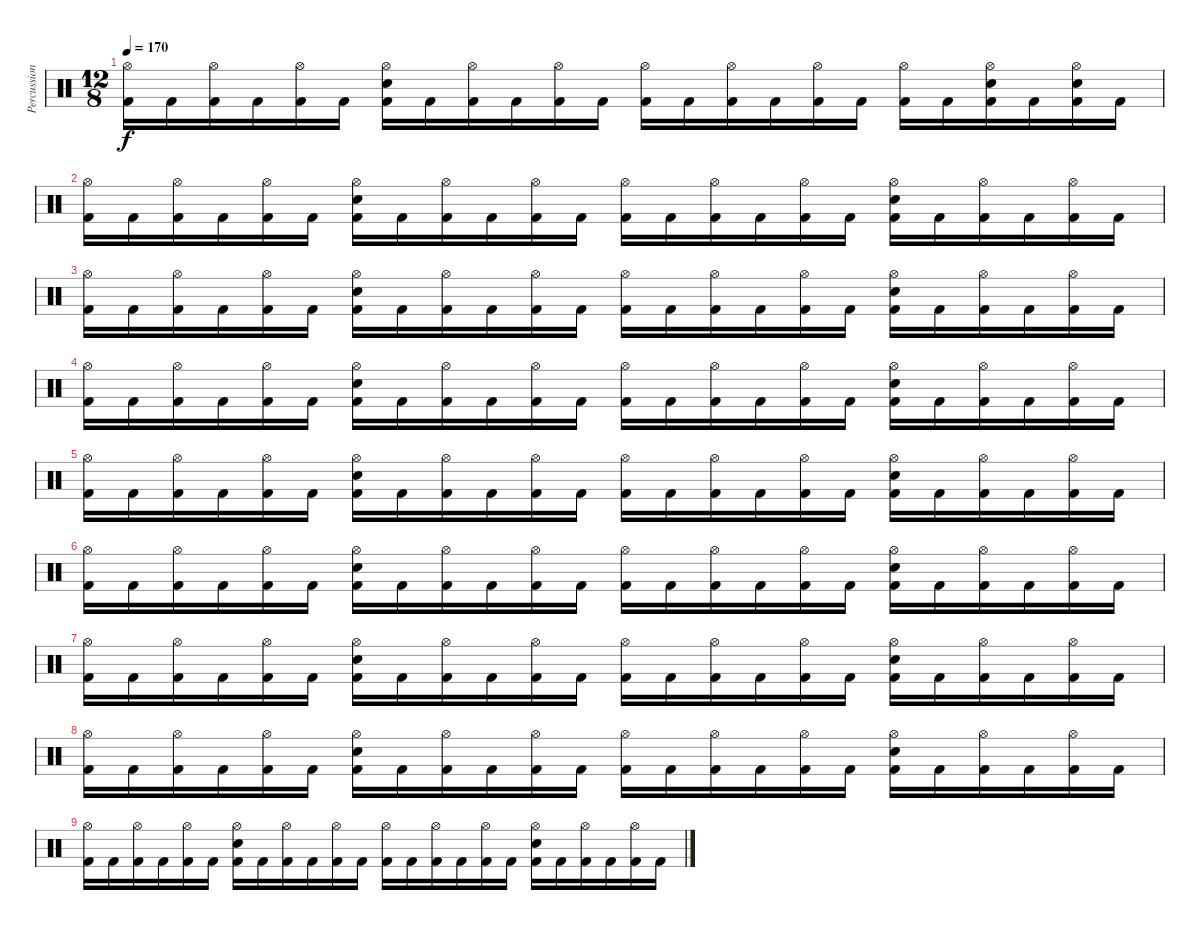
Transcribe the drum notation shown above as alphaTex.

\track ("Percussion" "Percussion") {instrument percussion}
\staff {score}
\articulation defaults
\ts (12 8)
\tempo 170
\clef neutral
\ks c
("Kick (hit) 2" "Hi-Hat (open)").16{dy f} "Kick (hit) 2".16 ("Kick (hit) 2" "Hi-Hat (open)").16 "Kick (hit) 2".16 ("Kick (hit) 2" "Hi-Hat (open)").16 "Kick (hit) 2".16 ("Kick (hit) 2" "Snare (hit) 2" "Hi-Hat (open)").16 "Kick (hit) 2".16 ("Kick (hit) 2" "Hi-Hat (open)").16 "Kick (hit) 2".16 ("Kick (hit) 2" "Hi-Hat (open)").16 "Kick (hit) 2".16 ("Kick (hit) 2" "Hi-Hat (open)").16 "Kick (hit) 2".16 ("Kick (hit) 2" "Hi-Hat (open)").16 "Kick (hit) 2".16 ("Kick (hit) 2" "Hi-Hat (open)").16 "Kick (hit) 2".16 ("Kick (hit) 2" "Hi-Hat (open)").16 "Kick (hit) 2".16 ("Kick (hit) 2" "Snare (hit) 2" "Hi-Hat (open)").16 "Kick (hit) 2".16 ("Kick (hit) 2" "Snare (hit) 2" "Hi-Hat (open)").16 "Kick (hit) 2".16 |
("Kick (hit) 2" "Hi-Hat (open)").16 "Kick (hit) 2".16 ("Kick (hit) 2" "Hi-Hat (open)").16 "Kick (hit) 2".16 ("Kick (hit) 2" "Hi-Hat (open)").16 "Kick (hit) 2".16 ("Kick (hit) 2" "Snare (hit) 2" "Hi-Hat (open)").16 "Kick (hit) 2".16 ("Kick (hit) 2" "Hi-Hat (open)").16 "Kick (hit) 2".16 ("Kick (hit) 2" "Hi-Hat (open)").16 "Kick (hit) 2".16 ("Kick (hit) 2" "Hi-Hat (open)").16 "Kick (hit) 2".16 ("Kick (hit) 2" "Hi-Hat (open)").16 "Kick (hit) 2".16 ("Kick (hit) 2" "Hi-Hat (open)").16 "Kick (hit) 2".16 ("Kick (hit) 2" "Snare (hit) 2" "Hi-Hat (open)").16 "Kick (hit) 2".16 ("Kick (hit) 2" "Hi-Hat (open)").16 "Kick (hit) 2".16 ("Kick (hit) 2" "Hi-Hat (open)").16 "Kick (hit) 2".16 |
("Kick (hit) 2" "Hi-Hat (open)").16 "Kick (hit) 2".16 ("Kick (hit) 2" "Hi-Hat (open)").16 "Kick (hit) 2".16 ("Kick (hit) 2" "Hi-Hat (open)").16 "Kick (hit) 2".16 ("Kick (hit) 2" "Snare (hit) 2" "Hi-Hat (open)").16 "Kick (hit) 2".16 ("Kick (hit) 2" "Hi-Hat (open)").16 "Kick (hit) 2".16 ("Kick (hit) 2" "Hi-Hat (open)").16 "Kick (hit) 2".16 ("Kick (hit) 2" "Hi-Hat (open)").16 "Kick (hit) 2".16 ("Kick (hit) 2" "Hi-Hat (open)").16 "Kick (hit) 2".16 ("Kick (hit) 2" "Hi-Hat (open)").16 "Kick (hit) 2".16 ("Kick (hit) 2" "Snare (hit) 2" "Hi-Hat (open)").16 "Kick (hit) 2".16 ("Kick (hit) 2" "Hi-Hat (open)").16 "Kick (hit) 2".16 ("Kick (hit) 2" "Hi-Hat (open)").16 "Kick (hit) 2".16 |
("Kick (hit) 2" "Hi-Hat (open)").16 "Kick (hit) 2".16 ("Kick (hit) 2" "Hi-Hat (open)").16 "Kick (hit) 2".16 ("Kick (hit) 2" "Hi-Hat (open)").16 "Kick (hit) 2".16 ("Kick (hit) 2" "Snare (hit) 2" "Hi-Hat (open)").16 "Kick (hit) 2".16 ("Kick (hit) 2" "Hi-Hat (open)").16 "Kick (hit) 2".16 ("Kick (hit) 2" "Hi-Hat (open)").16 "Kick (hit) 2".16 ("Kick (hit) 2" "Hi-Hat (open)").16 "Kick (hit) 2".16 ("Kick (hit) 2" "Hi-Hat (open)").16 "Kick (hit) 2".16 ("Kick (hit) 2" "Hi-Hat (open)").16 "Kick (hit) 2".16 ("Kick (hit) 2" "Snare (hit) 2" "Hi-Hat (open)").16 "Kick (hit) 2".16 ("Kick (hit) 2" "Hi-Hat (open)").16 "Kick (hit) 2".16 ("Kick (hit) 2" "Hi-Hat (open)").16 "Kick (hit) 2".16 |
("Kick (hit) 2" "Hi-Hat (open)").16 "Kick (hit) 2".16 ("Kick (hit) 2" "Hi-Hat (open)").16 "Kick (hit) 2".16 ("Kick (hit) 2" "Hi-Hat (open)").16 "Kick (hit) 2".16 ("Kick (hit) 2" "Snare (hit) 2" "Hi-Hat (open)").16 "Kick (hit) 2".16 ("Kick (hit) 2" "Hi-Hat (open)").16 "Kick (hit) 2".16 ("Kick (hit) 2" "Hi-Hat (open)").16 "Kick (hit) 2".16 ("Kick (hit) 2" "Hi-Hat (open)").16 "Kick (hit) 2".16 ("Kick (hit) 2" "Hi-Hat (open)").16 "Kick (hit) 2".16 ("Kick (hit) 2" "Hi-Hat (open)").16 "Kick (hit) 2".16 ("Kick (hit) 2" "Snare (hit) 2" "Hi-Hat (open)").16 "Kick (hit) 2".16 ("Kick (hit) 2" "Hi-Hat (open)").16 "Kick (hit) 2".16 ("Kick (hit) 2" "Hi-Hat (open)").16 "Kick (hit) 2".16 |
("Kick (hit) 2" "Hi-Hat (open)").16 "Kick (hit) 2".16 ("Kick (hit) 2" "Hi-Hat (open)").16 "Kick (hit) 2".16 ("Kick (hit) 2" "Hi-Hat (open)").16 "Kick (hit) 2".16 ("Kick (hit) 2" "Snare (hit) 2" "Hi-Hat (open)").16 "Kick (hit) 2".16 ("Kick (hit) 2" "Hi-Hat (open)").16 "Kick (hit) 2".16 ("Kick (hit) 2" "Hi-Hat (open)").16 "Kick (hit) 2".16 ("Kick (hit) 2" "Hi-Hat (open)").16 "Kick (hit) 2".16 ("Kick (hit) 2" "Hi-Hat (open)").16 "Kick (hit) 2".16 ("Kick (hit) 2" "Hi-Hat (open)").16 "Kick (hit) 2".16 ("Kick (hit) 2" "Snare (hit) 2" "Hi-Hat (open)").16 "Kick (hit) 2".16 ("Kick (hit) 2" "Hi-Hat (open)").16 "Kick (hit) 2".16 ("Kick (hit) 2" "Hi-Hat (open)").16 "Kick (hit) 2".16 |
("Kick (hit) 2" "Hi-Hat (open)").16 "Kick (hit) 2".16 ("Kick (hit) 2" "Hi-Hat (open)").16 "Kick (hit) 2".16 ("Kick (hit) 2" "Hi-Hat (open)").16 "Kick (hit) 2".16 ("Kick (hit) 2" "Snare (hit) 2" "Hi-Hat (open)").16 "Kick (hit) 2".16 ("Kick (hit) 2" "Hi-Hat (open)").16 "Kick (hit) 2".16 ("Kick (hit) 2" "Hi-Hat (open)").16 "Kick (hit) 2".16 ("Kick (hit) 2" "Hi-Hat (open)").16 "Kick (hit) 2".16 ("Kick (hit) 2" "Hi-Hat (open)").16 "Kick (hit) 2".16 ("Kick (hit) 2" "Hi-Hat (open)").16 "Kick (hit) 2".16 ("Kick (hit) 2" "Snare (hit) 2" "Hi-Hat (open)").16 "Kick (hit) 2".16 ("Kick (hit) 2" "Hi-Hat (open)").16 "Kick (hit) 2".16 ("Kick (hit) 2" "Hi-Hat (open)").16 "Kick (hit) 2".16 |
("Kick (hit) 2" "Hi-Hat (open)").16 "Kick (hit) 2".16 ("Kick (hit) 2" "Hi-Hat (open)").16 "Kick (hit) 2".16 ("Kick (hit) 2" "Hi-Hat (open)").16 "Kick (hit) 2".16 ("Kick (hit) 2" "Snare (hit) 2" "Hi-Hat (open)").16 "Kick (hit) 2".16 ("Kick (hit) 2" "Hi-Hat (open)").16 "Kick (hit) 2".16 ("Kick (hit) 2" "Hi-Hat (open)").16 "Kick (hit) 2".16 ("Kick (hit) 2" "Hi-Hat (open)").16 "Kick (hit) 2".16 ("Kick (hit) 2" "Hi-Hat (open)").16 "Kick (hit) 2".16 ("Kick (hit) 2" "Hi-Hat (open)").16 "Kick (hit) 2".16 ("Kick (hit) 2" "Snare (hit) 2" "Hi-Hat (open)").16 "Kick (hit) 2".16 ("Kick (hit) 2" "Hi-Hat (open)").16 "Kick (hit) 2".16 ("Kick (hit) 2" "Hi-Hat (open)").16 "Kick (hit) 2".16 |
("Kick (hit) 2" "Hi-Hat (open)").16 "Kick (hit) 2".16 ("Kick (hit) 2" "Hi-Hat (open)").16 "Kick (hit) 2".16 ("Kick (hit) 2" "Hi-Hat (open)").16 "Kick (hit) 2".16 ("Kick (hit) 2" "Snare (hit) 2" "Hi-Hat (open)").16 "Kick (hit) 2".16 ("Kick (hit) 2" "Hi-Hat (open)").16 "Kick (hit) 2".16 ("Kick (hit) 2" "Hi-Hat (open)").16 "Kick (hit) 2".16 ("Kick (hit) 2" "Hi-Hat (open)").16 "Kick (hit) 2".16 ("Kick (hit) 2" "Hi-Hat (open)").16 "Kick (hit) 2".16 ("Kick (hit) 2" "Hi-Hat (open)").16 "Kick (hit) 2".16 ("Kick (hit) 2" "Snare (hit) 2" "Hi-Hat (open)").16 "Kick (hit) 2".16 ("Kick (hit) 2" "Hi-Hat (open)").16 "Kick (hit) 2".16 ("Kick (hit) 2" "Hi-Hat (open)").16 "Kick (hit) 2".16
